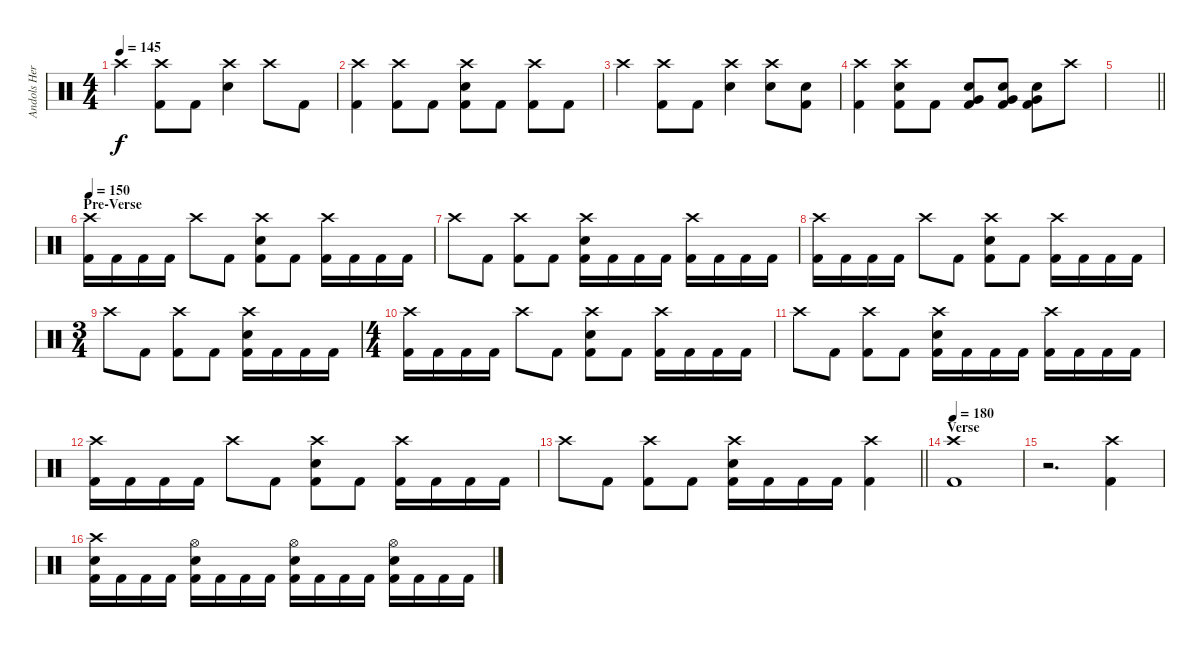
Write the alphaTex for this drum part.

\track ("Andols Herrick" "Andols Her") {instrument percussion}
\staff {score}
\articulation defaults
\ts (4 4)
\tempo 145
\clef neutral
\ks c "Crash high (hit)".4{dy f}
("Crash high (hit)" "Kick (hit) 2").8 "Kick (hit) 2".8 ("Crash high (hit)" "Electric Snare (hit)").4 "Crash high (hit)".8 "Kick (hit) 2".8 |
("Crash high (hit)" "Kick (hit) 2").4 ("Crash high (hit)" "Kick (hit) 2").8 "Kick (hit) 2".8 ("Crash high (hit)" "Electric Snare (hit)" "Kick (hit) 2").8 "Kick (hit) 2".8 ("Crash high (hit)" "Kick (hit) 2").8 "Kick (hit) 2".8 |
"Crash high (hit)".4 ("Crash high (hit)" "Kick (hit) 2").8 "Kick (hit) 2".8 ("Crash high (hit)" "Electric Snare (hit)").4 ("Crash high (hit)" "Electric Snare (hit)").8 ("Electric Snare (hit)" "Kick (hit) 2").8 |
("Crash high (hit)" "Kick (hit) 2").4 ("Crash high (hit)" "Electric Snare (hit)" "Kick (hit) 2").8 "Kick (hit) 2".8 ("Electric Snare (hit)" "Very Low Tom (hit)" "Kick (hit) 2").8 ("Electric Snare (hit)" "Very Low Tom (hit)" "Kick (hit) 2").8 ("Electric Snare (hit)" "Very Low Tom (hit)" "Kick (hit) 2").8 "Crash high (hit)".8 |
\barLineRight lightlight
|
\section ("" "Pre-Verse")
\tempo 150
("Crash high (hit)" "Kick (hit) 2").16 "Kick (hit) 2".16 "Kick (hit) 2".16 "Kick (hit) 2".16 "Crash high (hit)".8 "Kick (hit) 2".8 ("Crash high (hit)" "Electric Snare (hit)" "Kick (hit) 2").8 "Kick (hit) 2".8 ("Crash high (hit)" "Kick (hit) 2").16 "Kick (hit) 2".16 "Kick (hit) 2".16 "Kick (hit) 2".16 |
"Crash high (hit)".8 "Kick (hit) 2".8 ("Crash high (hit)" "Kick (hit) 2").8 "Kick (hit) 2".8 ("Crash high (hit)" "Electric Snare (hit)" "Kick (hit) 2").16 "Kick (hit) 2".16 "Kick (hit) 2".16 "Kick (hit) 2".16 ("Crash high (hit)" "Kick (hit) 2").16 "Kick (hit) 2".16 "Kick (hit) 2".16 "Kick (hit) 2".16 |
("Crash high (hit)" "Kick (hit) 2").16 "Kick (hit) 2".16 "Kick (hit) 2".16 "Kick (hit) 2".16 "Crash high (hit)".8 "Kick (hit) 2".8 ("Crash high (hit)" "Electric Snare (hit)" "Kick (hit) 2").8 "Kick (hit) 2".8 ("Crash high (hit)" "Kick (hit) 2").16 "Kick (hit) 2".16 "Kick (hit) 2".16 "Kick (hit) 2".16 |
\ts (3 4)
"Crash high (hit)".8 "Kick (hit) 2".8 ("Crash high (hit)" "Kick (hit) 2").8 "Kick (hit) 2".8 ("Crash high (hit)" "Electric Snare (hit)" "Kick (hit) 2").16 "Kick (hit) 2".16 "Kick (hit) 2".16 "Kick (hit) 2".16 |
\ts (4 4)
("Crash high (hit)" "Kick (hit) 2").16 "Kick (hit) 2".16 "Kick (hit) 2".16 "Kick (hit) 2".16 "Crash high (hit)".8 "Kick (hit) 2".8 ("Crash high (hit)" "Electric Snare (hit)" "Kick (hit) 2").8 "Kick (hit) 2".8 ("Crash high (hit)" "Kick (hit) 2").16 "Kick (hit) 2".16 "Kick (hit) 2".16 "Kick (hit) 2".16 |
"Crash high (hit)".8 "Kick (hit) 2".8 ("Crash high (hit)" "Kick (hit) 2").8 "Kick (hit) 2".8 ("Crash high (hit)" "Electric Snare (hit)" "Kick (hit) 2").16 "Kick (hit) 2".16 "Kick (hit) 2".16 "Kick (hit) 2".16 ("Crash high (hit)" "Kick (hit) 2").16 "Kick (hit) 2".16 "Kick (hit) 2".16 "Kick (hit) 2".16 |
("Crash high (hit)" "Kick (hit) 2").16 "Kick (hit) 2".16 "Kick (hit) 2".16 "Kick (hit) 2".16 "Crash high (hit)".8 "Kick (hit) 2".8 ("Crash high (hit)" "Electric Snare (hit)" "Kick (hit) 2").8 "Kick (hit) 2".8 ("Crash high (hit)" "Kick (hit) 2").16 "Kick (hit) 2".16 "Kick (hit) 2".16 "Kick (hit) 2".16 |
\barLineRight lightlight "Crash high (hit)".8 "Kick (hit) 2".8
("Crash high (hit)" "Kick (hit) 2").8 "Kick (hit) 2".8 ("Crash high (hit)" "Electric Snare (hit)" "Kick (hit) 2").16 "Kick (hit) 2".16 "Kick (hit) 2".16 "Kick (hit) 2".16 ("Crash high (hit)" "Kick (hit) 2").4 |
\section ("" "Verse")
\tempo 180
("Crash high (hit)" "Kick (hit) 2").1 |
r.2{d} ("Crash high (hit)" "Kick (hit) 2").4 |
("Crash high (hit)" "Electric Snare (hit)" "Kick (hit) 2").16 "Kick (hit) 2".16 "Kick (hit) 2".16 "Kick (hit) 2".16 ("Hi-Hat (open)" "Electric Snare (hit)" "Kick (hit) 2").16 "Kick (hit) 2".16 "Kick (hit) 2".16 "Kick (hit) 2".16 ("Hi-Hat (open)" "Electric Snare (hit)" "Kick (hit) 2").16 "Kick (hit) 2".16 "Kick (hit) 2".16 "Kick (hit) 2".16 ("Hi-Hat (open)" "Electric Snare (hit)" "Kick (hit) 2").16 "Kick (hit) 2".16 "Kick (hit) 2".16 "Kick (hit) 2".16
